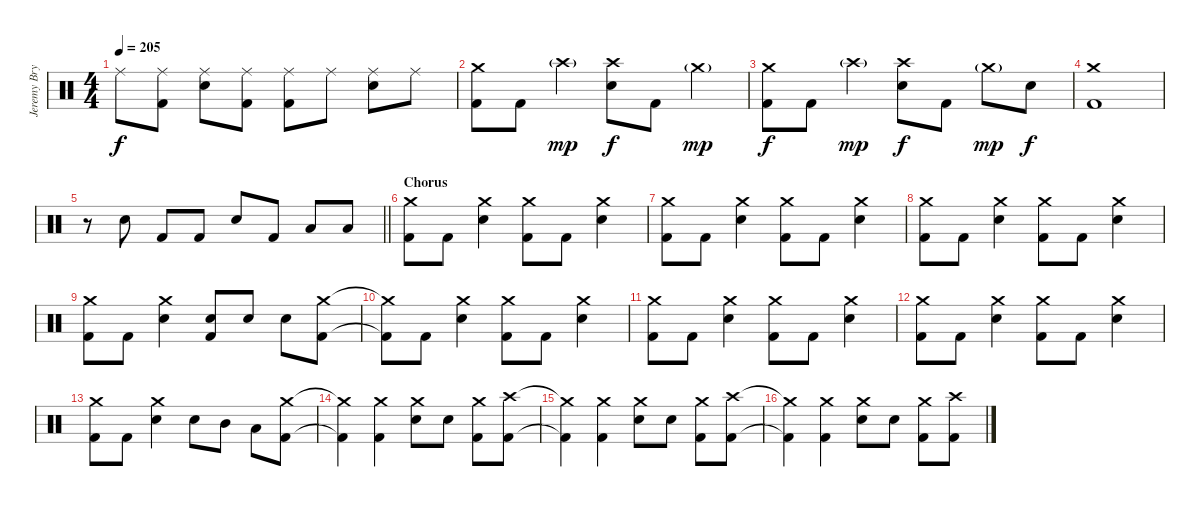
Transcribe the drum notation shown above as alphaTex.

\track ("Jeremy Bryan - Drums" "Jeremy Bry") {instrument percussion}
\staff {score}
\articulation defaults
\ts (4 4)
\tempo 205
\clef neutral
\ks c "Ride (middle)".8{dy f}
("Ride (middle)" "Kick (hit) 2").8 ("Ride (middle)" "Electric Snare (hit)").8 ("Ride (middle)" "Kick (hit) 2").8 ("Ride (middle)" "Kick (hit) 2").8 "Ride (middle)".8 ("Ride (middle)" "Electric Snare (hit)").8 "Ride (middle)".8 |
("Crash medium (hit)" "Kick (hit) 2").8 "Kick (hit) 2".8 "Crash high (hit)"{g}.4{dy mp} ("Crash high (hit)" "Electric Snare (hit)").8{dy f} "Kick (hit) 2".8 "Crash medium (hit)"{g}.4{dy mp} |
("Crash medium (hit)" "Kick (hit) 2").8{dy f} "Kick (hit) 2".8 "Crash high (hit)"{g}.4{dy mp} ("Crash high (hit)" "Electric Snare (hit)").8{dy f} "Kick (hit) 2".8 "Crash medium (hit)"{g}.8{dy mp} "Electric Snare (hit)".8{dy f} |
("Crash medium (hit)" "Kick (hit) 2").1 |
\barLineRight lightlight
r.8 "Electric Snare (hit)".8 "Kick (hit) 2".8 "Kick (hit) 2".8 "Electric Snare (hit)".8 "Kick (hit) 2".8 "Low Tom (hit)".8 "Low Tom (hit)".8 |
\section ("" "Chorus")
("Crash medium (hit)" "Kick (hit) 2").8 "Kick (hit) 2".8 ("Crash medium (hit)" "Electric Snare (hit)").4 ("Crash medium (hit)" "Kick (hit) 2").8 "Kick (hit) 2".8 ("Crash medium (hit)" "Electric Snare (hit)").4 |
("Crash medium (hit)" "Kick (hit) 2").8 "Kick (hit) 2".8 ("Crash medium (hit)" "Electric Snare (hit)").4 ("Crash medium (hit)" "Kick (hit) 2").8 "Kick (hit) 2".8 ("Crash medium (hit)" "Electric Snare (hit)").4 |
("Crash medium (hit)" "Kick (hit) 2").8 "Kick (hit) 2".8 ("Crash medium (hit)" "Electric Snare (hit)").4 ("Crash medium (hit)" "Kick (hit) 2").8 "Kick (hit) 2".8 ("Crash medium (hit)" "Electric Snare (hit)").4 |
("Crash medium (hit)" "Kick (hit) 2").8 "Kick (hit) 2".8 ("Crash medium (hit)" "Electric Snare (hit)").4 ("Kick (hit) 2" "Electric Snare (hit)").8 "Electric Snare (hit)".8 "Electric Snare (hit)".8 ("Crash medium (hit)" "Kick (hit) 2").8 |
("Crash medium (hit)"{t} "Kick (hit) 2"{t}).8 "Kick (hit) 2".8 ("Crash medium (hit)" "Electric Snare (hit)").4 ("Crash medium (hit)" "Kick (hit) 2").8 "Kick (hit) 2".8 ("Crash medium (hit)" "Electric Snare (hit)").4 |
("Crash medium (hit)" "Kick (hit) 2").8 "Kick (hit) 2".8 ("Crash medium (hit)" "Electric Snare (hit)").4 ("Crash medium (hit)" "Kick (hit) 2").8 "Kick (hit) 2".8 ("Crash medium (hit)" "Electric Snare (hit)").4 |
("Crash medium (hit)" "Kick (hit) 2").8 "Kick (hit) 2".8 ("Crash medium (hit)" "Electric Snare (hit)").4 ("Crash medium (hit)" "Kick (hit) 2").8 "Kick (hit) 2".8 ("Crash medium (hit)" "Electric Snare (hit)").4 |
("Crash medium (hit)" "Kick (hit) 2").8 "Kick (hit) 2".8 ("Crash medium (hit)" "Electric Snare (hit)").4 "Electric Snare (hit)".8 "Mid Tom (hit)".8 "Low Tom (hit)".8 ("Crash medium (hit)" "Kick (hit) 2").8 |
("Crash medium (hit)"{t} "Kick (hit) 2"{t}).4 ("Crash medium (hit)" "Kick (hit) 2").4 ("Crash medium (hit)" "Electric Snare (hit)").8 "Electric Snare (hit)".8 ("Crash medium (hit)" "Kick (hit) 2").8 ("Crash high (hit)" "Kick (hit) 2").8 |
("Crash medium (hit)"{t} "Kick (hit) 2"{t}).4 ("Crash medium (hit)" "Kick (hit) 2").4 ("Crash medium (hit)" "Electric Snare (hit)").8 "Electric Snare (hit)".8 ("Crash medium (hit)" "Kick (hit) 2").8 ("Crash high (hit)" "Kick (hit) 2").8 |
("Crash medium (hit)"{t} "Kick (hit) 2"{t}).4 ("Crash medium (hit)" "Kick (hit) 2").4 ("Crash medium (hit)" "Electric Snare (hit)").8 "Electric Snare (hit)".8 ("Crash medium (hit)" "Kick (hit) 2").8 ("Crash high (hit)" "Kick (hit) 2").8
